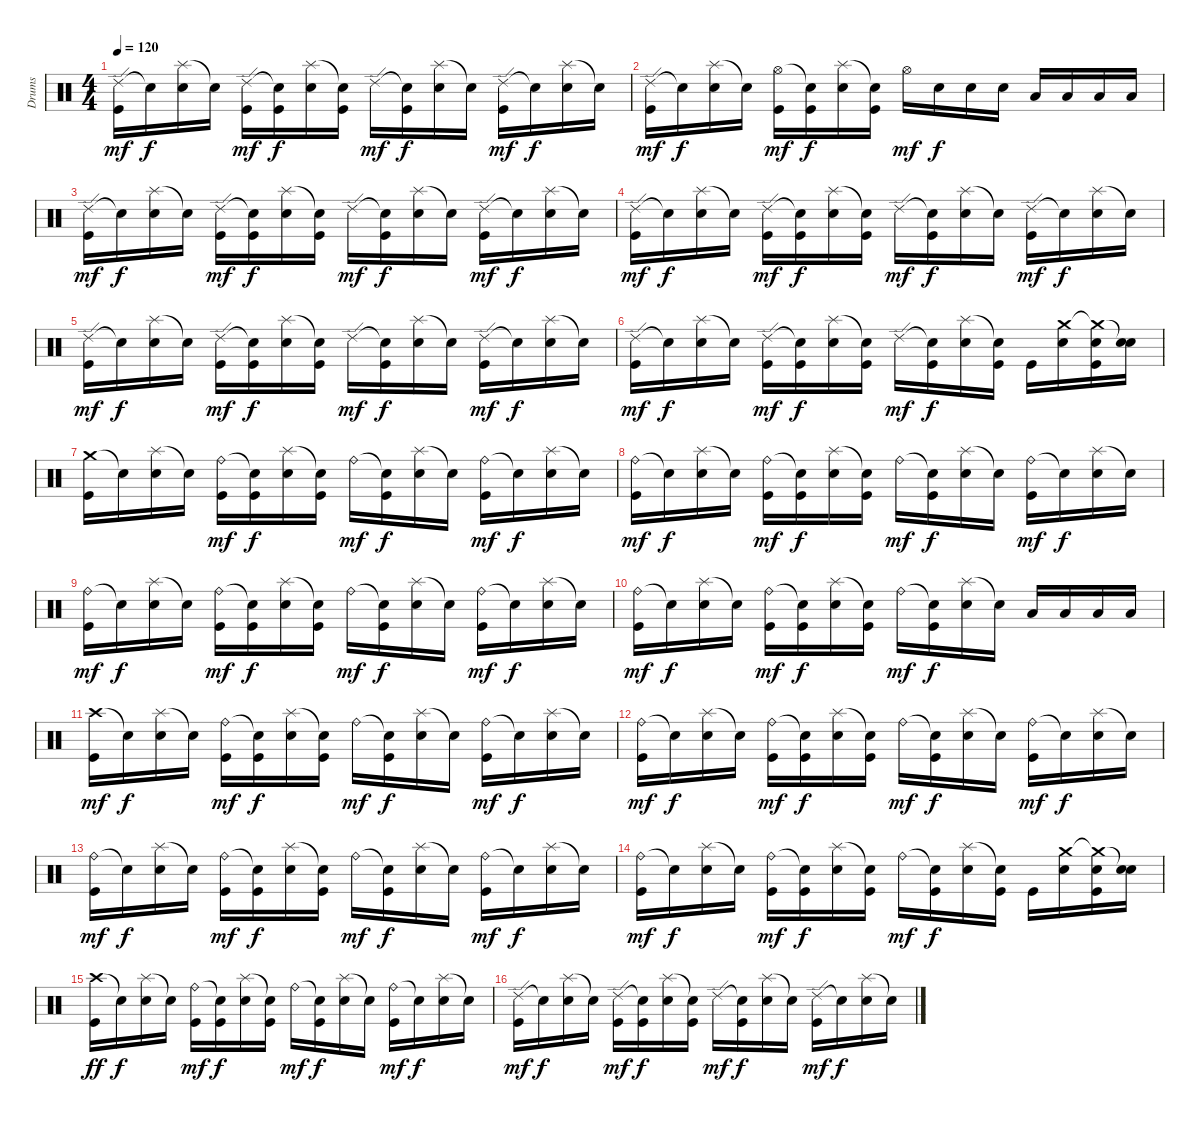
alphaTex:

\track ("Drums" "Drums") {instrument percussion}
\staff {score}
\articulation defaults
\ts (4 4)
\tempo 120
\clef neutral
\ks c
("Ride (edge) 2" "Kick (hit)").16{dy mf} "Snare (hit)"{t}.16{dy f} ("Splash (hit)" "Electric Snare (hit)").16 "Snare (hit)"{t}.16 ("Ride (edge) 2" "Kick (hit)").16{dy mf} ("Snare (hit)"{t} "Kick (hit)").16{dy f} ("Splash (hit)" "Electric Snare (hit)").16 ("Snare (hit)"{t} "Kick (hit)").16 "Ride (edge) 2".16{dy mf} ("Snare (hit)"{t} "Kick (hit)").16{dy f} ("Splash (hit)" "Electric Snare (hit)").16 "Snare (hit)"{t}.16 ("Ride (edge) 2" "Kick (hit)").16{dy mf} "Snare (hit)"{t}.16{dy f} ("Splash (hit)" "Electric Snare (hit)").16 "Snare (hit)"{t}.16 |
("Ride (edge) 2" "Kick (hit)").16{dy mf} "Snare (hit)"{t}.16{dy f} ("Splash (hit)" "Electric Snare (hit)").16 "Snare (hit)"{t}.16 ("Hi-Hat (open)" "Kick (hit)").16{dy mf} ("Snare (hit)"{t} "Kick (hit)").16{dy f} ("Splash (hit)" "Electric Snare (hit)").16 ("Snare (hit)"{t} "Kick (hit)").16 "Hi-Hat (open)".16{dy mf} "Snare (hit) 2".16{dy f} "Snare (hit) 2".16 "Snare (hit) 2".16 "Low Tom (hit)".16 "Low Tom (hit)".16 "Low Tom (hit)".16 "Low Tom (hit)".16 |
("Ride (edge) 2" "Kick (hit)").16{dy mf} "Snare (hit)"{t}.16{dy f} ("Splash (hit)" "Electric Snare (hit)").16 "Snare (hit)"{t}.16 ("Ride (edge) 2" "Kick (hit)").16{dy mf} ("Snare (hit)"{t} "Kick (hit)").16{dy f} ("Splash (hit)" "Electric Snare (hit)").16 ("Snare (hit)"{t} "Kick (hit)").16 "Ride (edge) 2".16{dy mf} ("Snare (hit)"{t} "Kick (hit)").16{dy f} ("Splash (hit)" "Electric Snare (hit)").16 "Snare (hit)"{t}.16 ("Ride (edge) 2" "Kick (hit)").16{dy mf} "Snare (hit)"{t}.16{dy f} ("Splash (hit)" "Electric Snare (hit)").16 "Snare (hit)"{t}.16 |
("Ride (edge) 2" "Kick (hit)").16{dy mf} "Snare (hit)"{t}.16{dy f} ("Splash (hit)" "Electric Snare (hit)").16 "Snare (hit)"{t}.16 ("Ride (edge) 2" "Kick (hit)").16{dy mf} ("Snare (hit)"{t} "Kick (hit)").16{dy f} ("Splash (hit)" "Electric Snare (hit)").16 ("Snare (hit)"{t} "Kick (hit)").16 "Ride (edge) 2".16{dy mf} ("Snare (hit)"{t} "Kick (hit)").16{dy f} ("Splash (hit)" "Electric Snare (hit)").16 "Snare (hit)"{t}.16 ("Ride (edge) 2" "Kick (hit)").16{dy mf} "Snare (hit)"{t}.16{dy f} ("Splash (hit)" "Electric Snare (hit)").16 "Snare (hit)"{t}.16 |
("Ride (edge) 2" "Kick (hit)").16{dy mf} "Snare (hit)"{t}.16{dy f} ("Splash (hit)" "Electric Snare (hit)").16 "Snare (hit)"{t}.16 ("Ride (edge) 2" "Kick (hit)").16{dy mf} ("Snare (hit)"{t} "Kick (hit)").16{dy f} ("Splash (hit)" "Electric Snare (hit)").16 ("Snare (hit)"{t} "Kick (hit)").16 "Ride (edge) 2".16{dy mf} ("Snare (hit)"{t} "Kick (hit)").16{dy f} ("Splash (hit)" "Electric Snare (hit)").16 "Snare (hit)"{t}.16 ("Ride (edge) 2" "Kick (hit)").16{dy mf} "Snare (hit)"{t}.16{dy f} ("Splash (hit)" "Electric Snare (hit)").16 "Snare (hit)"{t}.16 |
("Ride (edge) 2" "Kick (hit)").16{dy mf} "Snare (hit)"{t}.16{dy f} ("Splash (hit)" "Electric Snare (hit)").16 "Snare (hit)"{t}.16 ("Ride (edge) 2" "Kick (hit)").16{dy mf} ("Snare (hit)"{t} "Kick (hit)").16{dy f} ("Splash (hit)" "Electric Snare (hit)").16 ("Snare (hit)"{t} "Kick (hit)").16 "Ride (edge) 2".16{dy mf} ("Snare (hit)"{t} "Kick (hit)").16{dy f} ("Splash (hit)" "Electric Snare (hit)").16 ("Snare (hit)"{t} "Kick (hit)").16 "Kick (hit)".16 ("Crash medium (hit)" "Electric Snare (hit)").16 ("Crash medium (hit)"{t} "Electric Snare (hit)" "Kick (hit)").16 ("Snare (hit)"{t} "Electric Snare (hit)").16 |
("Crash medium (hit)" "Kick (hit)").16 "Snare (hit)"{t}.16 ("Splash (hit)" "Electric Snare (hit)").16 "Snare (hit)"{t}.16 ("Ride (bell)" "Kick (hit)").16{dy mf} ("Snare (hit)"{t} "Kick (hit)").16{dy f} ("Splash (hit)" "Electric Snare (hit)").16 ("Snare (hit)"{t} "Kick (hit)").16 "Ride (bell)".16{dy mf} ("Snare (hit)"{t} "Kick (hit)").16{dy f} ("Splash (hit)" "Electric Snare (hit)").16 "Snare (hit)"{t}.16 ("Ride (bell)" "Kick (hit)").16{dy mf} "Snare (hit)"{t}.16{dy f} ("Splash (hit)" "Electric Snare (hit)").16 "Snare (hit)"{t}.16 |
("Ride (bell)" "Kick (hit)").16{dy mf} "Snare (hit)"{t}.16{dy f} ("Splash (hit)" "Electric Snare (hit)").16 "Snare (hit)"{t}.16 ("Ride (bell)" "Kick (hit)").16{dy mf} ("Snare (hit)"{t} "Kick (hit)").16{dy f} ("Splash (hit)" "Electric Snare (hit)").16 ("Snare (hit)"{t} "Kick (hit)").16 "Ride (bell)".16{dy mf} ("Snare (hit)"{t} "Kick (hit)").16{dy f} ("Splash (hit)" "Electric Snare (hit)").16 "Snare (hit)"{t}.16 ("Ride (bell)" "Kick (hit)").16{dy mf} "Snare (hit)"{t}.16{dy f} ("Splash (hit)" "Electric Snare (hit)").16 "Snare (hit)"{t}.16 |
("Ride (bell)" "Kick (hit)").16{dy mf} "Snare (hit)"{t}.16{dy f} ("Splash (hit)" "Electric Snare (hit)").16 "Snare (hit)"{t}.16 ("Ride (bell)" "Kick (hit)").16{dy mf} ("Snare (hit)"{t} "Kick (hit)").16{dy f} ("Splash (hit)" "Electric Snare (hit)").16 ("Snare (hit)"{t} "Kick (hit)").16 "Ride (bell)".16{dy mf} ("Snare (hit)"{t} "Kick (hit)").16{dy f} ("Splash (hit)" "Electric Snare (hit)").16 "Snare (hit)"{t}.16 ("Ride (bell)" "Kick (hit)").16{dy mf} "Snare (hit)"{t}.16{dy f} ("Splash (hit)" "Electric Snare (hit)").16 "Snare (hit)"{t}.16 |
("Ride (bell)" "Kick (hit)").16{dy mf} "Snare (hit)"{t}.16{dy f} ("Splash (hit)" "Electric Snare (hit)").16 "Snare (hit)"{t}.16 ("Ride (bell)" "Kick (hit)").16{dy mf} ("Snare (hit)"{t} "Kick (hit)").16{dy f} ("Splash (hit)" "Electric Snare (hit)").16 ("Snare (hit)"{t} "Kick (hit)").16 "Ride (bell)".16{dy mf} ("Snare (hit)"{t} "Kick (hit)").16{dy f} ("Splash (hit)" "Electric Snare (hit)").16 "Snare (hit)"{t}.16 "Low Tom (hit)".16 "Low Tom (hit)".16 "Low Tom (hit)".16 "Low Tom (hit)".16 |
("Crash high (hit)" "Kick (hit)").16{dy mf} "Snare (hit)"{t}.16{dy f} ("Splash (hit)" "Electric Snare (hit)").16 "Snare (hit)"{t}.16 ("Ride (bell)" "Kick (hit)").16{dy mf} ("Snare (hit)"{t} "Kick (hit)").16{dy f} ("Splash (hit)" "Electric Snare (hit)").16 ("Snare (hit)"{t} "Kick (hit)").16 "Ride (bell)".16{dy mf} ("Snare (hit)"{t} "Kick (hit)").16{dy f} ("Splash (hit)" "Electric Snare (hit)").16 "Snare (hit)"{t}.16 ("Ride (bell)" "Kick (hit)").16{dy mf} "Snare (hit)"{t}.16{dy f} ("Splash (hit)" "Electric Snare (hit)").16 "Snare (hit)"{t}.16 |
("Ride (bell)" "Kick (hit)").16{dy mf} "Snare (hit)"{t}.16{dy f} ("Splash (hit)" "Electric Snare (hit)").16 "Snare (hit)"{t}.16 ("Ride (bell)" "Kick (hit)").16{dy mf} ("Snare (hit)"{t} "Kick (hit)").16{dy f} ("Splash (hit)" "Electric Snare (hit)").16 ("Snare (hit)"{t} "Kick (hit)").16 "Ride (bell)".16{dy mf} ("Snare (hit)"{t} "Kick (hit)").16{dy f} ("Splash (hit)" "Electric Snare (hit)").16 "Snare (hit)"{t}.16 ("Ride (bell)" "Kick (hit)").16{dy mf} "Snare (hit)"{t}.16{dy f} ("Splash (hit)" "Electric Snare (hit)").16 "Snare (hit)"{t}.16 |
("Ride (bell)" "Kick (hit)").16{dy mf} "Snare (hit)"{t}.16{dy f} ("Splash (hit)" "Electric Snare (hit)").16 "Snare (hit)"{t}.16 ("Ride (bell)" "Kick (hit)").16{dy mf} ("Snare (hit)"{t} "Kick (hit)").16{dy f} ("Splash (hit)" "Electric Snare (hit)").16 ("Snare (hit)"{t} "Kick (hit)").16 "Ride (bell)".16{dy mf} ("Snare (hit)"{t} "Kick (hit)").16{dy f} ("Splash (hit)" "Electric Snare (hit)").16 "Snare (hit)"{t}.16 ("Ride (bell)" "Kick (hit)").16{dy mf} "Snare (hit)"{t}.16{dy f} ("Splash (hit)" "Electric Snare (hit)").16 "Snare (hit)"{t}.16 |
("Ride (bell)" "Kick (hit)").16{dy mf} "Snare (hit)"{t}.16{dy f} ("Splash (hit)" "Electric Snare (hit)").16 "Snare (hit)"{t}.16 ("Ride (bell)" "Kick (hit)").16{dy mf} ("Snare (hit)"{t} "Kick (hit)").16{dy f} ("Splash (hit)" "Electric Snare (hit)").16 ("Snare (hit)"{t} "Kick (hit)").16 "Ride (bell)".16{dy mf} ("Snare (hit)"{t} "Kick (hit)").16{dy f} ("Splash (hit)" "Electric Snare (hit)").16 ("Snare (hit)"{t} "Kick (hit)").16 "Kick (hit)".16 ("Crash medium (hit)" "Electric Snare (hit)").16 ("Crash medium (hit)"{t} "Electric Snare (hit)" "Kick (hit)").16 ("Snare (hit)"{t} "Electric Snare (hit)").16 |
("Crash high (hit)" "Kick (hit)").16{dy ff} "Snare (hit)"{t}.16{dy f} ("Splash (hit)" "Electric Snare (hit)").16 "Snare (hit)"{t}.16 ("Ride (bell)" "Kick (hit)").16{dy mf} ("Snare (hit)"{t} "Kick (hit)").16{dy f} ("Splash (hit)" "Electric Snare (hit)").16 ("Snare (hit)"{t} "Kick (hit)").16 "Ride (bell)".16{dy mf} ("Snare (hit)"{t} "Kick (hit)").16{dy f} ("Splash (hit)" "Electric Snare (hit)").16 "Snare (hit)"{t}.16 ("Ride (bell)" "Kick (hit)").16{dy mf} "Snare (hit)"{t}.16{dy f} ("Splash (hit)" "Electric Snare (hit)").16 "Snare (hit)"{t}.16 |
("Ride (edge) 2" "Kick (hit)").16{dy mf} "Snare (hit)"{t}.16{dy f} ("Splash (hit)" "Electric Snare (hit)").16 "Snare (hit)"{t}.16 ("Ride (edge) 2" "Kick (hit)").16{dy mf} ("Snare (hit)"{t} "Kick (hit)").16{dy f} ("Splash (hit)" "Electric Snare (hit)").16 ("Snare (hit)"{t} "Kick (hit)").16 "Ride (edge) 2".16{dy mf} ("Snare (hit)"{t} "Kick (hit)").16{dy f} ("Splash (hit)" "Electric Snare (hit)").16 "Snare (hit)"{t}.16 ("Ride (edge) 2" "Kick (hit)").16{dy mf} "Snare (hit)"{t}.16{dy f} ("Splash (hit)" "Electric Snare (hit)").16 "Snare (hit)"{t}.16
